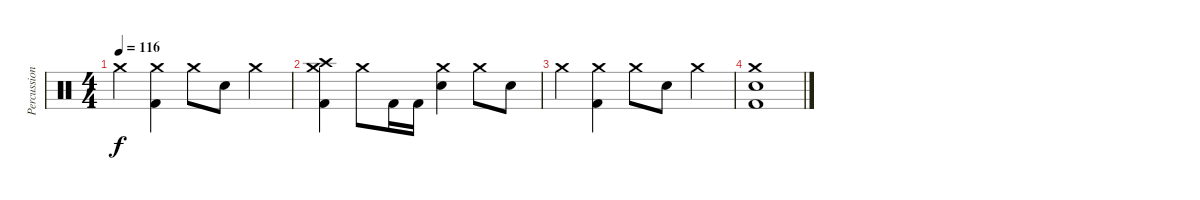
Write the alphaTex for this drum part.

\track ("Percussion" "Percussion") {instrument percussion}
\staff {score}
\articulation defaults
\ts (4 4)
\tempo 116
\clef neutral
\ks c "Crash medium (hit)".4{dy f}
("Crash medium (hit)" "Kick (hit) 2").4 "Crash medium (hit)".8 "Electric Snare (hit)".8 "Crash medium (hit)".4 |
("Crash medium (hit)" "Crash high (hit)" "Kick (hit) 2").4 "Crash medium (hit)".8 "Kick (hit) 2".16 "Kick (hit) 2".16 ("Crash medium (hit)" "Electric Snare (hit)").4 "Crash medium (hit)".8 "Electric Snare (hit)".8 |
"Crash medium (hit)".4 ("Crash medium (hit)" "Kick (hit) 2").4 "Crash medium (hit)".8 "Electric Snare (hit)".8 "Crash medium (hit)".4 |
("Crash medium (hit)" "Electric Snare (hit)" "Kick (hit) 2").1
